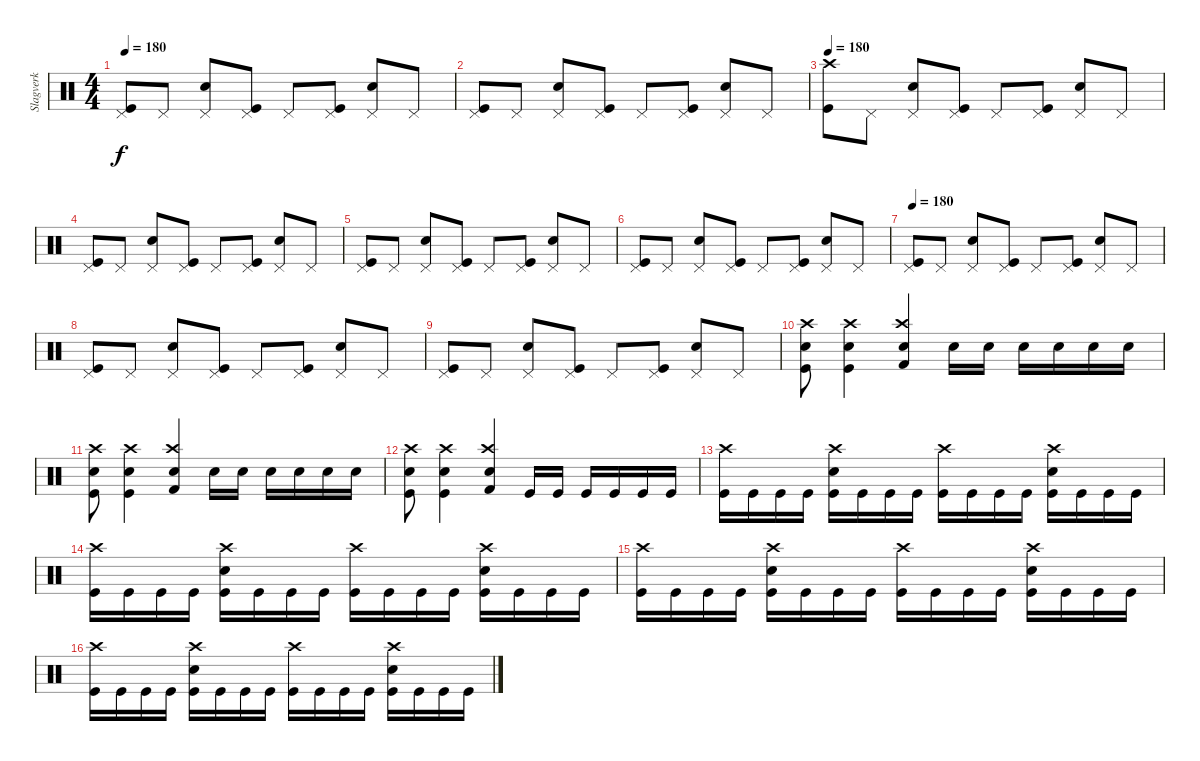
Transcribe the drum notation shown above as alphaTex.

\track ("Slagverk" "Slagverk") {instrument percussion}
\staff {score}
\articulation defaults
\ts (4 4)
\tempo 180
\clef neutral
\ks c
("Pedal Hi-Hat (hit)" "Kick (hit)").8{dy f} "Pedal Hi-Hat (hit)".8 ("Pedal Hi-Hat (hit)" "Electric Snare (hit)").8 ("Pedal Hi-Hat (hit)" "Kick (hit)").8 "Pedal Hi-Hat (hit)".8 ("Pedal Hi-Hat (hit)" "Kick (hit)").8 ("Pedal Hi-Hat (hit)" "Electric Snare (hit)").8 "Pedal Hi-Hat (hit)".8 |
("Pedal Hi-Hat (hit)" "Kick (hit)").8 "Pedal Hi-Hat (hit)".8 ("Pedal Hi-Hat (hit)" "Electric Snare (hit)").8 ("Pedal Hi-Hat (hit)" "Kick (hit)").8 "Pedal Hi-Hat (hit)".8 ("Pedal Hi-Hat (hit)" "Kick (hit)").8 ("Pedal Hi-Hat (hit)" "Electric Snare (hit)").8 "Pedal Hi-Hat (hit)".8 |
\tempo 180
("Crash high (hit)" "Kick (hit)").8 "Pedal Hi-Hat (hit)".8 ("Pedal Hi-Hat (hit)" "Electric Snare (hit)").8 ("Pedal Hi-Hat (hit)" "Kick (hit)").8 "Pedal Hi-Hat (hit)".8 ("Pedal Hi-Hat (hit)" "Kick (hit)").8 ("Pedal Hi-Hat (hit)" "Electric Snare (hit)").8 "Pedal Hi-Hat (hit)".8 |
("Pedal Hi-Hat (hit)" "Kick (hit)").8 "Pedal Hi-Hat (hit)".8 ("Pedal Hi-Hat (hit)" "Electric Snare (hit)").8 ("Pedal Hi-Hat (hit)" "Kick (hit)").8 "Pedal Hi-Hat (hit)".8 ("Pedal Hi-Hat (hit)" "Kick (hit)").8 ("Pedal Hi-Hat (hit)" "Electric Snare (hit)").8 "Pedal Hi-Hat (hit)".8 |
("Pedal Hi-Hat (hit)" "Kick (hit)").8 "Pedal Hi-Hat (hit)".8 ("Pedal Hi-Hat (hit)" "Electric Snare (hit)").8 ("Pedal Hi-Hat (hit)" "Kick (hit)").8 "Pedal Hi-Hat (hit)".8 ("Pedal Hi-Hat (hit)" "Kick (hit)").8 ("Pedal Hi-Hat (hit)" "Electric Snare (hit)").8 "Pedal Hi-Hat (hit)".8 |
("Pedal Hi-Hat (hit)" "Kick (hit)").8 "Pedal Hi-Hat (hit)".8 ("Pedal Hi-Hat (hit)" "Electric Snare (hit)").8 ("Pedal Hi-Hat (hit)" "Kick (hit)").8 "Pedal Hi-Hat (hit)".8 ("Pedal Hi-Hat (hit)" "Kick (hit)").8 ("Pedal Hi-Hat (hit)" "Electric Snare (hit)").8 "Pedal Hi-Hat (hit)".8 |
\tempo 180
("Pedal Hi-Hat (hit)" "Kick (hit)").8 "Pedal Hi-Hat (hit)".8 ("Pedal Hi-Hat (hit)" "Electric Snare (hit)").8 ("Pedal Hi-Hat (hit)" "Kick (hit)").8 "Pedal Hi-Hat (hit)".8 ("Pedal Hi-Hat (hit)" "Kick (hit)").8 ("Pedal Hi-Hat (hit)" "Electric Snare (hit)").8 "Pedal Hi-Hat (hit)".8 |
("Pedal Hi-Hat (hit)" "Kick (hit)").8 "Pedal Hi-Hat (hit)".8 ("Pedal Hi-Hat (hit)" "Electric Snare (hit)").8 ("Pedal Hi-Hat (hit)" "Kick (hit)").8 "Pedal Hi-Hat (hit)".8 ("Pedal Hi-Hat (hit)" "Kick (hit)").8 ("Pedal Hi-Hat (hit)" "Electric Snare (hit)").8 "Pedal Hi-Hat (hit)".8 |
("Pedal Hi-Hat (hit)" "Kick (hit)").8 "Pedal Hi-Hat (hit)".8 ("Pedal Hi-Hat (hit)" "Electric Snare (hit)").8 ("Pedal Hi-Hat (hit)" "Kick (hit)").8 "Pedal Hi-Hat (hit)".8 ("Pedal Hi-Hat (hit)" "Kick (hit)").8 ("Pedal Hi-Hat (hit)" "Electric Snare (hit)").8 "Pedal Hi-Hat (hit)".8 |
("Crash high (hit)" "Electric Snare (hit)" "Kick (hit)").8 ("Crash high (hit)" "Electric Snare (hit)" "Kick (hit)").4 ("Electric Snare (hit)" "Kick (hit) 2" "Crash high (hit)").4 "Electric Snare (hit)".16 "Electric Snare (hit)".16 "Electric Snare (hit)".16 "Electric Snare (hit)".16 "Electric Snare (hit)".16 "Electric Snare (hit)".16 |
("Crash high (hit)" "Electric Snare (hit)" "Kick (hit)").8 ("Crash high (hit)" "Electric Snare (hit)" "Kick (hit)").4 ("Electric Snare (hit)" "Kick (hit) 2" "Crash high (hit)").4 "Electric Snare (hit)".16 "Electric Snare (hit)".16 "Electric Snare (hit)".16 "Electric Snare (hit)".16 "Electric Snare (hit)".16 "Electric Snare (hit)".16 |
("Crash high (hit)" "Electric Snare (hit)" "Kick (hit)").8 ("Crash high (hit)" "Electric Snare (hit)" "Kick (hit)").4 ("Electric Snare (hit)" "Kick (hit) 2" "Crash high (hit)").4 "Kick (hit)".16 "Kick (hit)".16 "Kick (hit)".16 "Kick (hit)".16 "Kick (hit)".16 "Kick (hit)".16 |
("Kick (hit)" "Crash high (hit)").16 "Kick (hit)".16 "Kick (hit)".16 "Kick (hit)".16 ("Kick (hit)" "Electric Snare (hit)" "Crash high (hit)").16 "Kick (hit)".16 "Kick (hit)".16 "Kick (hit)".16 ("Kick (hit)" "Crash high (hit)").16 "Kick (hit)".16 "Kick (hit)".16 "Kick (hit)".16 ("Kick (hit)" "Electric Snare (hit)" "Crash high (hit)").16 "Kick (hit)".16 "Kick (hit)".16 "Kick (hit)".16 |
("Kick (hit)" "Crash high (hit)").16 "Kick (hit)".16 "Kick (hit)".16 "Kick (hit)".16 ("Kick (hit)" "Electric Snare (hit)" "Crash high (hit)").16 "Kick (hit)".16 "Kick (hit)".16 "Kick (hit)".16 ("Kick (hit)" "Crash high (hit)").16 "Kick (hit)".16 "Kick (hit)".16 "Kick (hit)".16 ("Kick (hit)" "Electric Snare (hit)" "Crash high (hit)").16 "Kick (hit)".16 "Kick (hit)".16 "Kick (hit)".16 |
("Kick (hit)" "Crash high (hit)").16 "Kick (hit)".16 "Kick (hit)".16 "Kick (hit)".16 ("Kick (hit)" "Electric Snare (hit)" "Crash high (hit)").16 "Kick (hit)".16 "Kick (hit)".16 "Kick (hit)".16 ("Kick (hit)" "Crash high (hit)").16 "Kick (hit)".16 "Kick (hit)".16 "Kick (hit)".16 ("Kick (hit)" "Electric Snare (hit)" "Crash high (hit)").16 "Kick (hit)".16 "Kick (hit)".16 "Kick (hit)".16 |
("Kick (hit)" "Crash high (hit)").16 "Kick (hit)".16 "Kick (hit)".16 "Kick (hit)".16 ("Kick (hit)" "Electric Snare (hit)" "Crash high (hit)").16 "Kick (hit)".16 "Kick (hit)".16 "Kick (hit)".16 ("Kick (hit)" "Crash high (hit)").16 "Kick (hit)".16 "Kick (hit)".16 "Kick (hit)".16 ("Kick (hit)" "Electric Snare (hit)" "Crash high (hit)").16 "Kick (hit)".16 "Kick (hit)".16 "Kick (hit)".16
